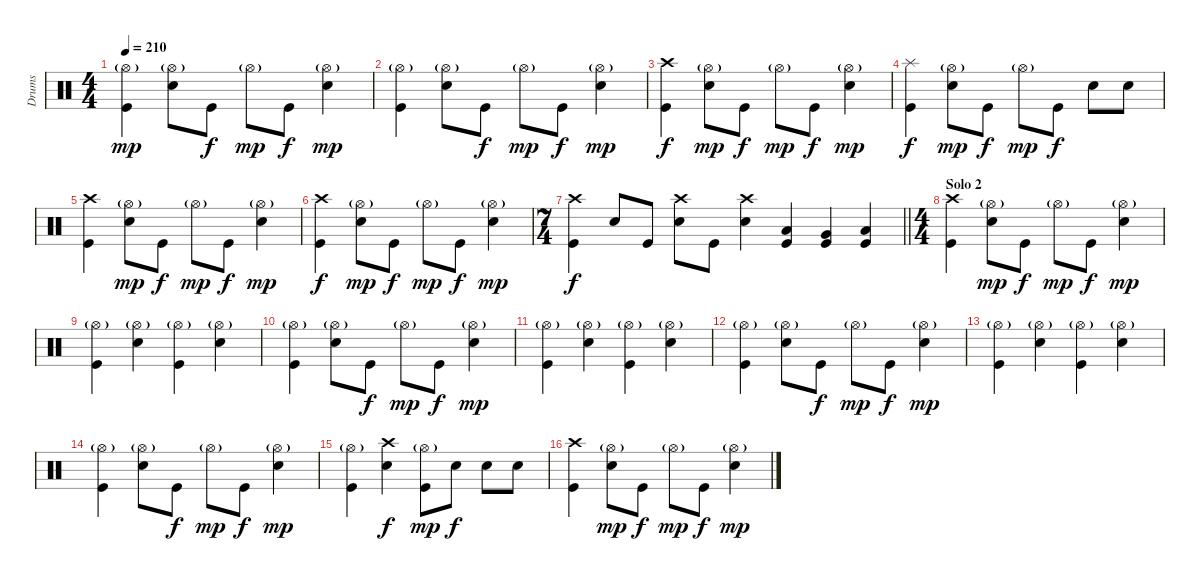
\track ("Drums" "Drums") {instrument percussion}
\staff {score}
\articulation defaults
\ts (4 4)
\tempo 210
\clef neutral
\ks c
("Hi-Hat (open)"{g} "Kick (hit)").4{dy mp} ("Hi-Hat (open)"{g} "Snare (hit) 2").8 "Kick (hit)".8{dy f} "Hi-Hat (open)"{g}.8{dy mp} "Kick (hit)".8{dy f} ("Hi-Hat (open)"{g} "Snare (hit) 2").4{dy mp} |
("Hi-Hat (open)"{g} "Kick (hit)").4 ("Hi-Hat (open)"{g} "Snare (hit) 2").8 "Kick (hit)".8{dy f} "Hi-Hat (open)"{g}.8{dy mp} "Kick (hit)".8{dy f} ("Hi-Hat (open)"{g} "Snare (hit) 2").4{dy mp} |
("Crash high (hit)" "Kick (hit)").4{dy f} ("Hi-Hat (open)"{g} "Snare (hit) 2").8{dy mp} "Kick (hit)".8{dy f} "Hi-Hat (open)"{g}.8{dy mp} "Kick (hit)".8{dy f} ("Hi-Hat (open)"{g} "Snare (hit) 2").4{dy mp} |
("Splash (hit)" "Kick (hit)").4{dy f} ("Hi-Hat (open)"{g} "Snare (hit) 2").8{dy mp} "Kick (hit)".8{dy f} "Hi-Hat (open)"{g}.8{dy mp} "Kick (hit)".8{dy f} "Snare (hit) 2".8 "Snare (hit) 2".8 |
("Crash high (hit)" "Kick (hit)").4 ("Hi-Hat (open)"{g} "Snare (hit) 2").8{dy mp} "Kick (hit)".8{dy f} "Hi-Hat (open)"{g}.8{dy mp} "Kick (hit)".8{dy f} ("Hi-Hat (open)"{g} "Snare (hit) 2").4{dy mp} |
("Crash high (hit)" "Kick (hit)").4{dy f} ("Hi-Hat (open)"{g} "Snare (hit) 2").8{dy mp} "Kick (hit)".8{dy f} "Hi-Hat (open)"{g}.8{dy mp} "Kick (hit)".8{dy f} ("Hi-Hat (open)"{g} "Snare (hit) 2").4{dy mp} |
\ts (7 4)
\barLineRight lightlight
("Crash high (hit)" "Kick (hit)").4{dy f} "Snare (hit) 2".8 "Kick (hit)".8 ("Crash high (hit)" "Snare (hit) 2").8 "Kick (hit)".8 ("Crash high (hit)" "Snare (hit) 2").4 ("Low Tom (hit)" "Kick (hit)").4 ("Very Low Tom (hit)" "Kick (hit)").4 ("Low Floor Tom (hit)" "Kick (hit)").4 |
\ts (4 4)
\section ("" "Solo 2")
("Crash high (hit)" "Kick (hit)").4 ("Hi-Hat (open)"{g} "Snare (hit) 2").8{dy mp} "Kick (hit)".8{dy f} "Hi-Hat (open)"{g}.8{dy mp} "Kick (hit)".8{dy f} ("Hi-Hat (open)"{g} "Snare (hit) 2").4{dy mp} |
("Hi-Hat (open)"{g} "Kick (hit)").4 ("Hi-Hat (open)"{g} "Snare (hit) 2").4 ("Hi-Hat (open)"{g} "Kick (hit)").4 ("Hi-Hat (open)"{g} "Snare (hit) 2").4 |
("Hi-Hat (open)"{g} "Kick (hit)").4 ("Hi-Hat (open)"{g} "Snare (hit) 2").8 "Kick (hit)".8{dy f} "Hi-Hat (open)"{g}.8{dy mp} "Kick (hit)".8{dy f} ("Hi-Hat (open)"{g} "Snare (hit) 2").4{dy mp} |
("Hi-Hat (open)"{g} "Kick (hit)").4 ("Hi-Hat (open)"{g} "Snare (hit) 2").4 ("Hi-Hat (open)"{g} "Kick (hit)").4 ("Hi-Hat (open)"{g} "Snare (hit) 2").4 |
("Hi-Hat (open)"{g} "Kick (hit)").4 ("Hi-Hat (open)"{g} "Snare (hit) 2").8 "Kick (hit)".8{dy f} "Hi-Hat (open)"{g}.8{dy mp} "Kick (hit)".8{dy f} ("Hi-Hat (open)"{g} "Snare (hit) 2").4{dy mp} |
("Hi-Hat (open)"{g} "Kick (hit)").4 ("Hi-Hat (open)"{g} "Snare (hit) 2").4 ("Hi-Hat (open)"{g} "Kick (hit)").4 ("Hi-Hat (open)"{g} "Snare (hit) 2").4 |
("Hi-Hat (open)"{g} "Kick (hit)").4 ("Hi-Hat (open)"{g} "Snare (hit) 2").8 "Kick (hit)".8{dy f} "Hi-Hat (open)"{g}.8{dy mp} "Kick (hit)".8{dy f} ("Hi-Hat (open)"{g} "Snare (hit) 2").4{dy mp} |
("Hi-Hat (open)"{g} "Kick (hit)").4 ("Crash high (hit)" "Snare (hit) 2").4{dy f} ("Hi-Hat (open)"{g} "Kick (hit)").8{dy mp} "Snare (hit) 2".8{dy f} "Snare (hit) 2".8 "Snare (hit) 2".8 |
("Crash high (hit)" "Kick (hit)").4 ("Hi-Hat (open)"{g} "Snare (hit) 2").8{dy mp} "Kick (hit)".8{dy f} "Hi-Hat (open)"{g}.8{dy mp} "Kick (hit)".8{dy f} ("Hi-Hat (open)"{g} "Snare (hit) 2").4{dy mp}
